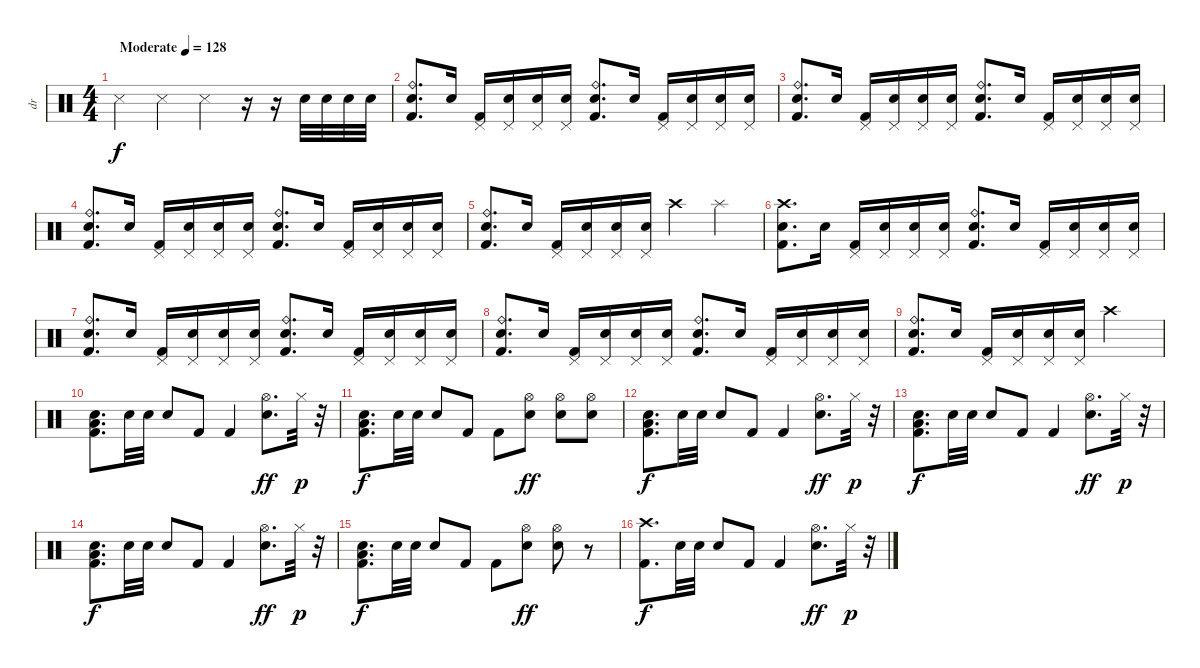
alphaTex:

\track ("dr" "dr") {instrument percussion}
\staff {score}
\articulation defaults
\ts (4 4)
\tempo (128 "Moderate")
\clef neutral
\ks c "Snare (side stick) 3".4{dy f} "Snare (side stick) 3".4 "Snare (side stick) 3".4
r.16 r.16 "Electric Snare (hit)".32 "Electric Snare (hit)".32 "Electric Snare (hit)".32 "Electric Snare (hit)".32 |
("Ride (bell)" "Electric Snare (hit)" "Kick (hit) 2").8{d} "Electric Snare (hit)".16 ("Pedal Hi-Hat (hit)" "Kick (hit) 2").16 ("Pedal Hi-Hat (hit)" "Electric Snare (hit)").16 ("Pedal Hi-Hat (hit)" "Electric Snare (hit)").16 ("Pedal Hi-Hat (hit)" "Electric Snare (hit)").16 ("Ride (bell)" "Electric Snare (hit)" "Kick (hit) 2").8{d} "Electric Snare (hit)".16 ("Pedal Hi-Hat (hit)" "Kick (hit) 2").16 ("Pedal Hi-Hat (hit)" "Electric Snare (hit)").16 ("Pedal Hi-Hat (hit)" "Electric Snare (hit)").16 ("Pedal Hi-Hat (hit)" "Electric Snare (hit)").16 |
("Ride (bell)" "Electric Snare (hit)" "Kick (hit) 2").8{d} "Electric Snare (hit)".16 ("Pedal Hi-Hat (hit)" "Kick (hit) 2").16 ("Pedal Hi-Hat (hit)" "Electric Snare (hit)").16 ("Pedal Hi-Hat (hit)" "Electric Snare (hit)").16 ("Pedal Hi-Hat (hit)" "Electric Snare (hit)").16 ("Ride (bell)" "Electric Snare (hit)" "Kick (hit) 2").8{d} "Electric Snare (hit)".16 ("Pedal Hi-Hat (hit)" "Kick (hit) 2").16 ("Pedal Hi-Hat (hit)" "Electric Snare (hit)").16 ("Pedal Hi-Hat (hit)" "Electric Snare (hit)").16 ("Pedal Hi-Hat (hit)" "Electric Snare (hit)").16 |
("Ride (bell)" "Electric Snare (hit)" "Kick (hit) 2").8{d} "Electric Snare (hit)".16 ("Pedal Hi-Hat (hit)" "Kick (hit) 2").16 ("Pedal Hi-Hat (hit)" "Electric Snare (hit)").16 ("Pedal Hi-Hat (hit)" "Electric Snare (hit)").16 ("Pedal Hi-Hat (hit)" "Electric Snare (hit)").16 ("Ride (bell)" "Electric Snare (hit)" "Kick (hit) 2").8{d} "Electric Snare (hit)".16 ("Pedal Hi-Hat (hit)" "Kick (hit) 2").16 ("Pedal Hi-Hat (hit)" "Electric Snare (hit)").16 ("Pedal Hi-Hat (hit)" "Electric Snare (hit)").16 ("Pedal Hi-Hat (hit)" "Electric Snare (hit)").16 |
("Ride (bell)" "Electric Snare (hit)" "Kick (hit) 2").8{d} "Electric Snare (hit)".16 ("Pedal Hi-Hat (hit)" "Kick (hit) 2").16 ("Pedal Hi-Hat (hit)" "Electric Snare (hit)").16 ("Pedal Hi-Hat (hit)" "Electric Snare (hit)").16 ("Pedal Hi-Hat (hit)" "Electric Snare (hit)").16 "Crash high (hit)".4 "Splash (hit)".4 |
("Crash high (hit)" "Electric Snare (hit)" "Kick (hit) 2").8{d} "Electric Snare (hit)".16 ("Pedal Hi-Hat (hit)" "Kick (hit) 2").16 ("Pedal Hi-Hat (hit)" "Electric Snare (hit)").16 ("Pedal Hi-Hat (hit)" "Electric Snare (hit)").16 ("Pedal Hi-Hat (hit)" "Electric Snare (hit)").16 ("Ride (bell)" "Electric Snare (hit)" "Kick (hit) 2").8{d} "Electric Snare (hit)".16 ("Pedal Hi-Hat (hit)" "Kick (hit) 2").16 ("Pedal Hi-Hat (hit)" "Electric Snare (hit)").16 ("Pedal Hi-Hat (hit)" "Electric Snare (hit)").16 ("Pedal Hi-Hat (hit)" "Electric Snare (hit)").16 |
("Ride (bell)" "Electric Snare (hit)" "Kick (hit) 2").8{d} "Electric Snare (hit)".16 ("Pedal Hi-Hat (hit)" "Kick (hit) 2").16 ("Pedal Hi-Hat (hit)" "Electric Snare (hit)").16 ("Pedal Hi-Hat (hit)" "Electric Snare (hit)").16 ("Pedal Hi-Hat (hit)" "Electric Snare (hit)").16 ("Ride (bell)" "Electric Snare (hit)" "Kick (hit) 2").8{d} "Electric Snare (hit)".16 ("Pedal Hi-Hat (hit)" "Kick (hit) 2").16 ("Pedal Hi-Hat (hit)" "Electric Snare (hit)").16 ("Pedal Hi-Hat (hit)" "Electric Snare (hit)").16 ("Pedal Hi-Hat (hit)" "Electric Snare (hit)").16 |
("Ride (bell)" "Electric Snare (hit)" "Kick (hit) 2").8{d} "Electric Snare (hit)".16 ("Pedal Hi-Hat (hit)" "Kick (hit) 2").16 ("Pedal Hi-Hat (hit)" "Electric Snare (hit)").16 ("Pedal Hi-Hat (hit)" "Electric Snare (hit)").16 ("Pedal Hi-Hat (hit)" "Electric Snare (hit)").16 ("Ride (bell)" "Electric Snare (hit)" "Kick (hit) 2").8{d} "Electric Snare (hit)".16 ("Pedal Hi-Hat (hit)" "Kick (hit) 2").16 ("Pedal Hi-Hat (hit)" "Electric Snare (hit)").16 ("Pedal Hi-Hat (hit)" "Electric Snare (hit)").16 ("Pedal Hi-Hat (hit)" "Electric Snare (hit)").16 |
("Ride (bell)" "Electric Snare (hit)" "Kick (hit) 2").8{d} "Electric Snare (hit)".16 ("Pedal Hi-Hat (hit)" "Kick (hit) 2").16 ("Pedal Hi-Hat (hit)" "Electric Snare (hit)").16 ("Pedal Hi-Hat (hit)" "Electric Snare (hit)").16 ("Pedal Hi-Hat (hit)" "Electric Snare (hit)").16 "Crash high (hit)".2 |
("Electric Snare (hit)" "Low Floor Tom (hit)" "Kick (hit) 2").8{d} "Electric Snare (hit)".32 "Electric Snare (hit)".32 "Electric Snare (hit)".8 "Kick (hit) 2".8 "Kick (hit) 2".4 ("Hi-Hat (open)" "Electric Snare (hit)").8{d dy ff} "Hi-Hat (closed)".32{dy p} r.32 |
("Electric Snare (hit)" "Low Floor Tom (hit)" "Kick (hit) 2").8{d dy f} "Electric Snare (hit)".32 "Electric Snare (hit)".32 "Electric Snare (hit)".8 "Kick (hit) 2".8 "Kick (hit) 2".8 ("Hi-Hat (open)" "Electric Snare (hit)").8{dy ff} ("Hi-Hat (open)" "Electric Snare (hit)").8 ("Hi-Hat (open)" "Electric Snare (hit)").8 |
("Electric Snare (hit)" "Low Floor Tom (hit)" "Kick (hit) 2").8{d dy f} "Electric Snare (hit)".32 "Electric Snare (hit)".32 "Electric Snare (hit)".8 "Kick (hit) 2".8 "Kick (hit) 2".4 ("Hi-Hat (open)" "Electric Snare (hit)").8{d dy ff} "Hi-Hat (closed)".32{dy p} r.32 |
("Electric Snare (hit)" "Low Floor Tom (hit)" "Kick (hit) 2").8{d dy f} "Electric Snare (hit)".32 "Electric Snare (hit)".32 "Electric Snare (hit)".8 "Kick (hit) 2".8 "Kick (hit) 2".4 ("Hi-Hat (open)" "Electric Snare (hit)").8{d dy ff} "Hi-Hat (closed)".32{dy p} r.32 |
("Electric Snare (hit)" "Low Floor Tom (hit)" "Kick (hit) 2").8{d dy f} "Electric Snare (hit)".32 "Electric Snare (hit)".32 "Electric Snare (hit)".8 "Kick (hit) 2".8 "Kick (hit) 2".4 ("Hi-Hat (open)" "Electric Snare (hit)").8{d dy ff} "Hi-Hat (closed)".32{dy p} r.32 |
("Electric Snare (hit)" "Low Floor Tom (hit)" "Kick (hit) 2").8{d dy f} "Electric Snare (hit)".32 "Electric Snare (hit)".32 "Electric Snare (hit)".8 "Kick (hit) 2".8 "Kick (hit) 2".8 ("Hi-Hat (open)" "Electric Snare (hit)").8{dy ff} ("Hi-Hat (open)" "Electric Snare (hit)").8 r.8 |
("Crash high (hit)" "Kick (hit) 2").8{d dy f} "Electric Snare (hit)".32 "Electric Snare (hit)".32 "Electric Snare (hit)".8 "Kick (hit) 2".8 "Kick (hit) 2".4 ("Hi-Hat (open)" "Electric Snare (hit)").8{d dy ff} "Hi-Hat (closed)".32{dy p} r.32
